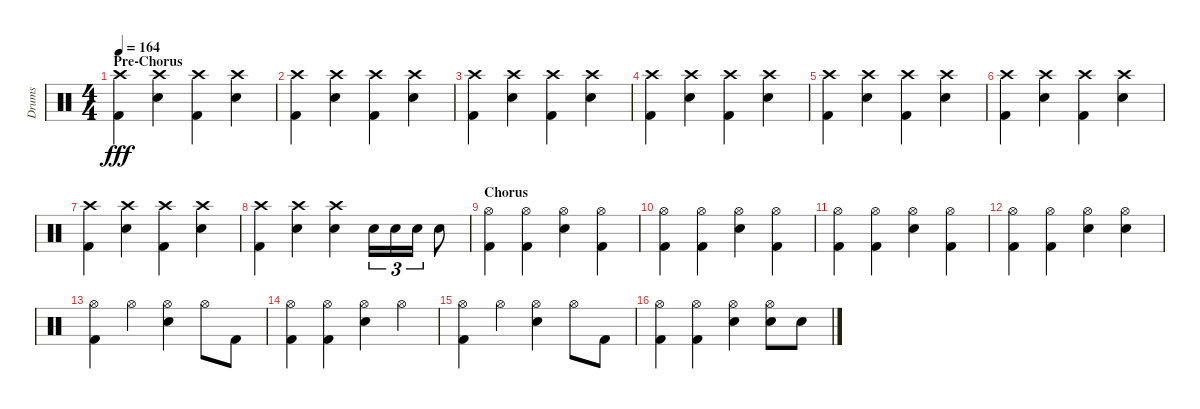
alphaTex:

\track ("Drums" "Drums") {instrument percussion}
\staff {score}
\articulation defaults
\ts (4 4)
\section ("" "Pre-Chorus")
\tempo 164
\clef neutral
\ks c
("Crash high (hit)" "Kick (hit) 2").4{dy fff} ("Crash high (hit)" "Electric Snare (hit)").4 ("Crash high (hit)" "Kick (hit) 2").4 ("Crash high (hit)" "Electric Snare (hit)").4 |
("Crash high (hit)" "Kick (hit) 2").4 ("Crash high (hit)" "Electric Snare (hit)").4 ("Crash high (hit)" "Kick (hit) 2").4 ("Crash high (hit)" "Electric Snare (hit)").4 |
("Crash high (hit)" "Kick (hit) 2").4 ("Crash high (hit)" "Electric Snare (hit)").4 ("Crash high (hit)" "Kick (hit) 2").4 ("Crash high (hit)" "Electric Snare (hit)").4 |
("Crash high (hit)" "Kick (hit) 2").4 ("Crash high (hit)" "Electric Snare (hit)").4 ("Crash high (hit)" "Kick (hit) 2").4 ("Crash high (hit)" "Electric Snare (hit)").4 |
("Crash high (hit)" "Kick (hit) 2").4 ("Crash high (hit)" "Electric Snare (hit)").4 ("Crash high (hit)" "Kick (hit) 2").4 ("Crash high (hit)" "Electric Snare (hit)").4 |
("Crash high (hit)" "Kick (hit) 2").4 ("Crash high (hit)" "Electric Snare (hit)").4 ("Crash high (hit)" "Kick (hit) 2").4 ("Crash high (hit)" "Electric Snare (hit)").4 |
("Crash high (hit)" "Kick (hit) 2").4 ("Crash high (hit)" "Electric Snare (hit)").4 ("Crash high (hit)" "Kick (hit) 2").4 ("Crash high (hit)" "Electric Snare (hit)").4 |
("Crash high (hit)" "Kick (hit) 2").4 ("Crash high (hit)" "Electric Snare (hit)").4 ("Crash high (hit)" "Electric Snare (hit)").4 "Electric Snare (hit)".16{tu (3 2)} "Electric Snare (hit)".16{tu (3 2)} "Electric Snare (hit)".16{tu (3 2)} "Electric Snare (hit)".8 |
\section ("" "Chorus")
("Hi-Hat (open)" "Kick (hit) 2").4 ("Hi-Hat (open)" "Kick (hit) 2").4 ("Hi-Hat (open)" "Electric Snare (hit)").4 ("Hi-Hat (open)" "Kick (hit) 2").4 |
("Hi-Hat (open)" "Kick (hit) 2").4 ("Hi-Hat (open)" "Kick (hit) 2").4 ("Hi-Hat (open)" "Electric Snare (hit)").4 ("Hi-Hat (open)" "Kick (hit) 2").4 |
("Hi-Hat (open)" "Kick (hit) 2").4 ("Hi-Hat (open)" "Kick (hit) 2").4 ("Hi-Hat (open)" "Electric Snare (hit)").4 ("Hi-Hat (open)" "Kick (hit) 2").4 |
("Hi-Hat (open)" "Kick (hit) 2").4 ("Hi-Hat (open)" "Kick (hit) 2").4 ("Hi-Hat (open)" "Electric Snare (hit)").4 ("Hi-Hat (open)" "Electric Snare (hit)").4 |
("Hi-Hat (open)" "Kick (hit) 2").4 "Hi-Hat (open)".4 ("Hi-Hat (open)" "Electric Snare (hit)").4 "Hi-Hat (open)".8 "Kick (hit) 2".8 |
("Hi-Hat (open)" "Kick (hit) 2").4 ("Hi-Hat (open)" "Kick (hit) 2").4 ("Hi-Hat (open)" "Electric Snare (hit)").4 "Hi-Hat (open)".4 |
("Hi-Hat (open)" "Kick (hit) 2").4 "Hi-Hat (open)".4 ("Hi-Hat (open)" "Electric Snare (hit)").4 "Hi-Hat (open)".8 "Kick (hit) 2".8 |
("Hi-Hat (open)" "Kick (hit) 2").4 ("Hi-Hat (open)" "Kick (hit) 2").4 ("Hi-Hat (open)" "Electric Snare (hit)").4 ("Hi-Hat (open)" "Electric Snare (hit)").8 "Electric Snare (hit)".8
